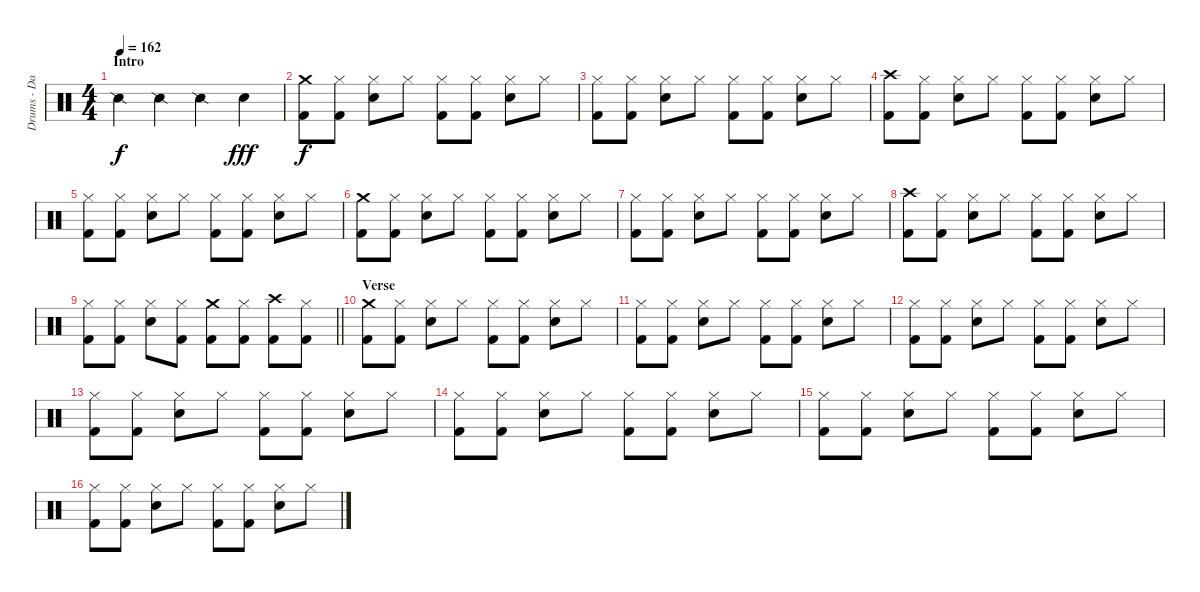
\track ("Drums - David Holland" "Drums - Da") {instrument percussion}
\staff {score}
\articulation defaults
\ts (4 4)
\section ("" "Intro")
\tempo 162
\clef neutral
\ks c "Snare (side stick) 2".4{dy f} "Snare (side stick) 2".4 "Snare (side stick) 2".4 "Snare (hit) 2".4{dy fff}
|
("Crash medium (hit)" "Kick (hit) 2").8{dy f} ("Hi-Hat (closed)" "Kick (hit) 2").8 ("Hi-Hat (closed)" "Snare (hit) 2").8 "Hi-Hat (closed)".8 ("Hi-Hat (closed)" "Kick (hit) 2").8 ("Hi-Hat (closed)" "Kick (hit) 2").8 ("Hi-Hat (closed)" "Snare (hit) 2").8 "Hi-Hat (closed)".8 |
("Hi-Hat (closed)" "Kick (hit) 2").8 ("Hi-Hat (closed)" "Kick (hit) 2").8 ("Hi-Hat (closed)" "Snare (hit) 2").8 "Hi-Hat (closed)".8 ("Hi-Hat (closed)" "Kick (hit) 2").8 ("Hi-Hat (closed)" "Kick (hit) 2").8 ("Hi-Hat (closed)" "Snare (hit) 2").8 "Hi-Hat (closed)".8 |
("Crash high (hit)" "Kick (hit) 2").8 ("Hi-Hat (closed)" "Kick (hit) 2").8 ("Hi-Hat (closed)" "Snare (hit) 2").8 "Hi-Hat (closed)".8 ("Hi-Hat (closed)" "Kick (hit) 2").8 ("Hi-Hat (closed)" "Kick (hit) 2").8 ("Hi-Hat (closed)" "Snare (hit) 2").8 "Hi-Hat (closed)".8 |
("Hi-Hat (closed)" "Kick (hit) 2").8 ("Hi-Hat (closed)" "Kick (hit) 2").8 ("Hi-Hat (closed)" "Snare (hit) 2").8 "Hi-Hat (closed)".8 ("Hi-Hat (closed)" "Kick (hit) 2").8 ("Hi-Hat (closed)" "Kick (hit) 2").8 ("Hi-Hat (closed)" "Snare (hit) 2").8 "Hi-Hat (closed)".8 |
("Crash medium (hit)" "Kick (hit) 2").8 ("Hi-Hat (closed)" "Kick (hit) 2").8 ("Hi-Hat (closed)" "Snare (hit) 2").8 "Hi-Hat (closed)".8 ("Hi-Hat (closed)" "Kick (hit) 2").8 ("Hi-Hat (closed)" "Kick (hit) 2").8 ("Hi-Hat (closed)" "Snare (hit) 2").8 "Hi-Hat (closed)".8 |
("Hi-Hat (closed)" "Kick (hit) 2").8 ("Hi-Hat (closed)" "Kick (hit) 2").8 ("Hi-Hat (closed)" "Snare (hit) 2").8 "Hi-Hat (closed)".8 ("Hi-Hat (closed)" "Kick (hit) 2").8 ("Hi-Hat (closed)" "Kick (hit) 2").8 ("Hi-Hat (closed)" "Snare (hit) 2").8 "Hi-Hat (closed)".8 |
("Crash high (hit)" "Kick (hit) 2").8 ("Hi-Hat (closed)" "Kick (hit) 2").8 ("Hi-Hat (closed)" "Snare (hit) 2").8 "Hi-Hat (closed)".8 ("Hi-Hat (closed)" "Kick (hit) 2").8 ("Hi-Hat (closed)" "Kick (hit) 2").8 ("Hi-Hat (closed)" "Snare (hit) 2").8 "Hi-Hat (closed)".8 |
\barLineRight lightlight
("Hi-Hat (closed)" "Kick (hit) 2").8 ("Hi-Hat (closed)" "Kick (hit) 2").8 ("Hi-Hat (closed)" "Snare (hit) 2").8 ("Hi-Hat (closed)" "Kick (hit) 2").8 ("Crash medium (hit)" "Kick (hit) 2").8 ("Hi-Hat (closed)" "Kick (hit) 2").8 ("Crash high (hit)" "Kick (hit) 2").8 ("Hi-Hat (closed)" "Kick (hit) 2").8 |
\section ("" "Verse")
("Crash medium (hit)" "Kick (hit) 2").8 ("Hi-Hat (closed)" "Kick (hit) 2").8 ("Hi-Hat (closed)" "Snare (hit) 2").8 "Hi-Hat (closed)".8 ("Hi-Hat (closed)" "Kick (hit) 2").8 ("Hi-Hat (closed)" "Kick (hit) 2").8 ("Hi-Hat (closed)" "Snare (hit) 2").8 "Hi-Hat (closed)".8 |
("Hi-Hat (closed)" "Kick (hit) 2").8 ("Hi-Hat (closed)" "Kick (hit) 2").8 ("Hi-Hat (closed)" "Snare (hit) 2").8 "Hi-Hat (closed)".8 ("Hi-Hat (closed)" "Kick (hit) 2").8 ("Hi-Hat (closed)" "Kick (hit) 2").8 ("Hi-Hat (closed)" "Snare (hit) 2").8 "Hi-Hat (closed)".8 |
("Hi-Hat (closed)" "Kick (hit) 2").8 ("Hi-Hat (closed)" "Kick (hit) 2").8 ("Hi-Hat (closed)" "Snare (hit) 2").8 "Hi-Hat (closed)".8 ("Hi-Hat (closed)" "Kick (hit) 2").8 ("Hi-Hat (closed)" "Kick (hit) 2").8 ("Hi-Hat (closed)" "Snare (hit) 2").8 "Hi-Hat (closed)".8 |
("Hi-Hat (closed)" "Kick (hit) 2").8 ("Hi-Hat (closed)" "Kick (hit) 2").8 ("Hi-Hat (closed)" "Snare (hit) 2").8 "Hi-Hat (closed)".8 ("Hi-Hat (closed)" "Kick (hit) 2").8 ("Hi-Hat (closed)" "Kick (hit) 2").8 ("Hi-Hat (closed)" "Snare (hit) 2").8 "Hi-Hat (closed)".8 |
("Hi-Hat (closed)" "Kick (hit) 2").8 ("Hi-Hat (closed)" "Kick (hit) 2").8 ("Hi-Hat (closed)" "Snare (hit) 2").8 "Hi-Hat (closed)".8 ("Hi-Hat (closed)" "Kick (hit) 2").8 ("Hi-Hat (closed)" "Kick (hit) 2").8 ("Hi-Hat (closed)" "Snare (hit) 2").8 "Hi-Hat (closed)".8 |
("Hi-Hat (closed)" "Kick (hit) 2").8 ("Hi-Hat (closed)" "Kick (hit) 2").8 ("Hi-Hat (closed)" "Snare (hit) 2").8 "Hi-Hat (closed)".8 ("Hi-Hat (closed)" "Kick (hit) 2").8 ("Hi-Hat (closed)" "Kick (hit) 2").8 ("Hi-Hat (closed)" "Snare (hit) 2").8 "Hi-Hat (closed)".8 |
("Hi-Hat (closed)" "Kick (hit) 2").8 ("Hi-Hat (closed)" "Kick (hit) 2").8 ("Hi-Hat (closed)" "Snare (hit) 2").8 "Hi-Hat (closed)".8 ("Hi-Hat (closed)" "Kick (hit) 2").8 ("Hi-Hat (closed)" "Kick (hit) 2").8 ("Hi-Hat (closed)" "Snare (hit) 2").8 "Hi-Hat (closed)".8
